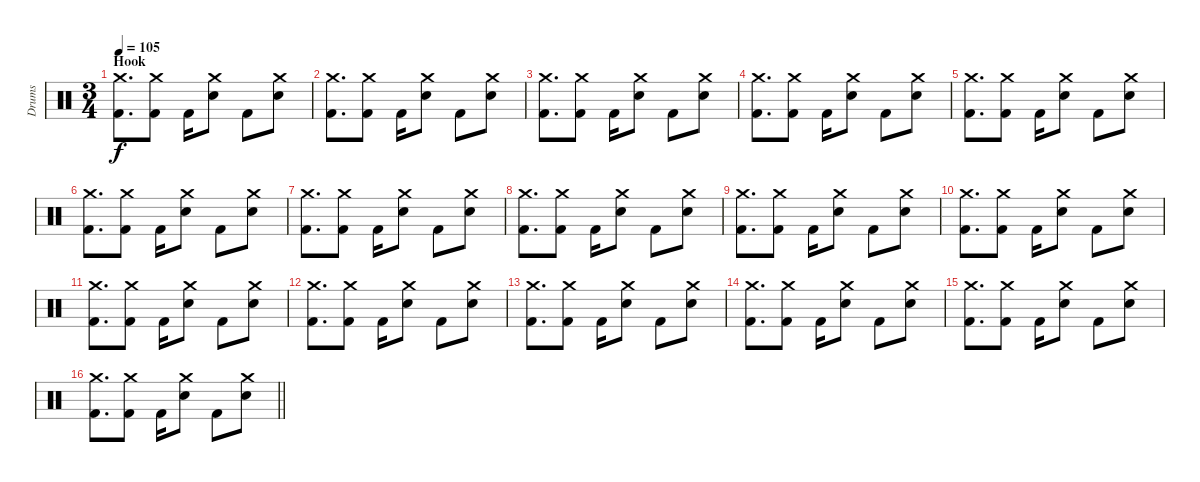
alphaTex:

\track ("Drums" "Drums") {instrument percussion}
\staff {score}
\articulation defaults
\ts (3 4)
\section ("" "Hook")
\tempo 105
\clef neutral
\ks c
("Crash medium (hit)" "Kick (hit) 2").8{d dy f} ("Crash medium (hit)" "Kick (hit) 2").8 "Kick (hit) 2".16 ("Crash medium (hit)" "Electric Snare (hit)").8 "Kick (hit) 2".8 ("Crash medium (hit)" "Electric Snare (hit)").8 |
("Crash medium (hit)" "Kick (hit) 2").8{d} ("Crash medium (hit)" "Kick (hit) 2").8 "Kick (hit) 2".16 ("Crash medium (hit)" "Electric Snare (hit)").8 "Kick (hit) 2".8 ("Crash medium (hit)" "Electric Snare (hit)").8 |
("Crash medium (hit)" "Kick (hit) 2").8{d} ("Crash medium (hit)" "Kick (hit) 2").8 "Kick (hit) 2".16 ("Crash medium (hit)" "Electric Snare (hit)").8 "Kick (hit) 2".8 ("Crash medium (hit)" "Electric Snare (hit)").8 |
("Crash medium (hit)" "Kick (hit) 2").8{d} ("Crash medium (hit)" "Kick (hit) 2").8 "Kick (hit) 2".16 ("Crash medium (hit)" "Electric Snare (hit)").8 "Kick (hit) 2".8 ("Crash medium (hit)" "Electric Snare (hit)").8 |
("Crash medium (hit)" "Kick (hit) 2").8{d} ("Crash medium (hit)" "Kick (hit) 2").8 "Kick (hit) 2".16 ("Crash medium (hit)" "Electric Snare (hit)").8 "Kick (hit) 2".8 ("Crash medium (hit)" "Electric Snare (hit)").8 |
("Crash medium (hit)" "Kick (hit) 2").8{d} ("Crash medium (hit)" "Kick (hit) 2").8 "Kick (hit) 2".16 ("Crash medium (hit)" "Electric Snare (hit)").8 "Kick (hit) 2".8 ("Crash medium (hit)" "Electric Snare (hit)").8 |
("Crash medium (hit)" "Kick (hit) 2").8{d} ("Crash medium (hit)" "Kick (hit) 2").8 "Kick (hit) 2".16 ("Crash medium (hit)" "Electric Snare (hit)").8 "Kick (hit) 2".8 ("Crash medium (hit)" "Electric Snare (hit)").8 |
("Crash medium (hit)" "Kick (hit) 2").8{d} ("Crash medium (hit)" "Kick (hit) 2").8 "Kick (hit) 2".16 ("Crash medium (hit)" "Electric Snare (hit)").8 "Kick (hit) 2".8 ("Crash medium (hit)" "Electric Snare (hit)").8 |
("Crash medium (hit)" "Kick (hit) 2").8{d} ("Crash medium (hit)" "Kick (hit) 2").8 "Kick (hit) 2".16 ("Crash medium (hit)" "Electric Snare (hit)").8 "Kick (hit) 2".8 ("Crash medium (hit)" "Electric Snare (hit)").8 |
("Crash medium (hit)" "Kick (hit) 2").8{d} ("Crash medium (hit)" "Kick (hit) 2").8 "Kick (hit) 2".16 ("Crash medium (hit)" "Electric Snare (hit)").8 "Kick (hit) 2".8 ("Crash medium (hit)" "Electric Snare (hit)").8 |
("Crash medium (hit)" "Kick (hit) 2").8{d} ("Crash medium (hit)" "Kick (hit) 2").8 "Kick (hit) 2".16 ("Crash medium (hit)" "Electric Snare (hit)").8 "Kick (hit) 2".8 ("Crash medium (hit)" "Electric Snare (hit)").8 |
("Crash medium (hit)" "Kick (hit) 2").8{d} ("Crash medium (hit)" "Kick (hit) 2").8 "Kick (hit) 2".16 ("Crash medium (hit)" "Electric Snare (hit)").8 "Kick (hit) 2".8 ("Crash medium (hit)" "Electric Snare (hit)").8 |
("Crash medium (hit)" "Kick (hit) 2").8{d} ("Crash medium (hit)" "Kick (hit) 2").8 "Kick (hit) 2".16 ("Crash medium (hit)" "Electric Snare (hit)").8 "Kick (hit) 2".8 ("Crash medium (hit)" "Electric Snare (hit)").8 |
("Crash medium (hit)" "Kick (hit) 2").8{d} ("Crash medium (hit)" "Kick (hit) 2").8 "Kick (hit) 2".16 ("Crash medium (hit)" "Electric Snare (hit)").8 "Kick (hit) 2".8 ("Crash medium (hit)" "Electric Snare (hit)").8 |
("Crash medium (hit)" "Kick (hit) 2").8{d} ("Crash medium (hit)" "Kick (hit) 2").8 "Kick (hit) 2".16 ("Crash medium (hit)" "Electric Snare (hit)").8 "Kick (hit) 2".8 ("Crash medium (hit)" "Electric Snare (hit)").8 |
\barLineRight lightlight
("Crash medium (hit)" "Kick (hit) 2").8{d} ("Crash medium (hit)" "Kick (hit) 2").8 "Kick (hit) 2".16 ("Crash medium (hit)" "Electric Snare (hit)").8 "Kick (hit) 2".8 ("Crash medium (hit)" "Electric Snare (hit)").8
